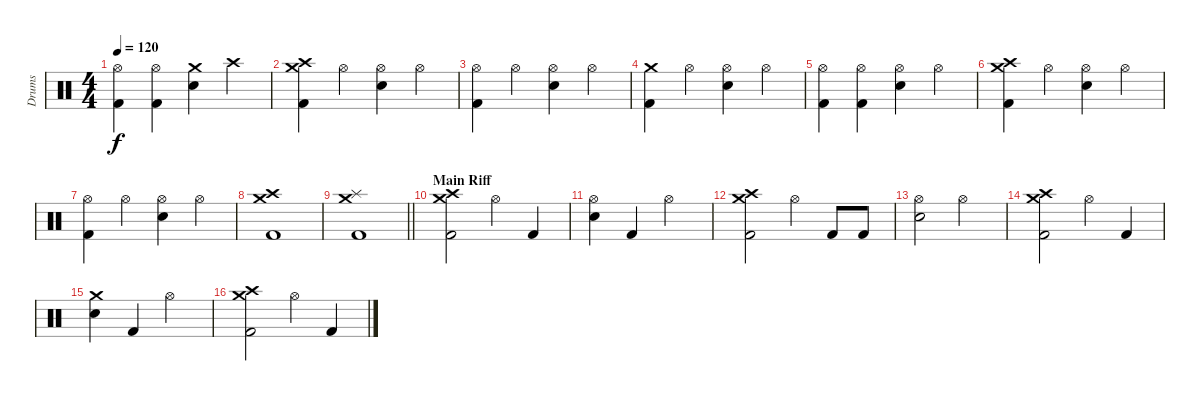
\track ("Drums" "Drums") {instrument percussion}
\staff {score}
\articulation defaults
\ts (4 4)
\tempo 120
\clef neutral
\ks c
("Hi-Hat (open)" "Kick (hit) 2").4{dy f} ("Hi-Hat (open)" "Kick (hit) 2").4 ("Crash medium (hit)" "Snare (hit) 2").4 "Crash high (hit)".4 |
("Crash high (hit)" "Crash medium (hit)" "Kick (hit) 2").4 "Hi-Hat (open)".4 ("Hi-Hat (open)" "Snare (hit) 2").4 "Hi-Hat (open)".4 |
("Hi-Hat (open)" "Kick (hit) 2").4 "Hi-Hat (open)".4 ("Hi-Hat (open)" "Snare (hit) 2").4 "Hi-Hat (open)".4 |
("Crash medium (hit)" "Kick (hit) 2").4 "Hi-Hat (open)".4 ("Hi-Hat (open)" "Snare (hit) 2").4 "Hi-Hat (open)".4 |
("Hi-Hat (open)" "Kick (hit) 2").4 ("Hi-Hat (open)" "Kick (hit) 2").4 ("Hi-Hat (open)" "Snare (hit) 2").4 "Hi-Hat (open)".4 |
("Crash high (hit)" "Crash medium (hit)" "Kick (hit) 2").4 "Hi-Hat (open)".4 ("Hi-Hat (open)" "Snare (hit) 2").4 "Hi-Hat (open)".4 |
("Hi-Hat (open)" "Kick (hit) 2").4 "Hi-Hat (open)".4 ("Hi-Hat (open)" "Snare (hit) 2").4 "Hi-Hat (open)".4 |
("Crash high (hit)" "Crash medium (hit)" "Kick (hit) 2").1 |
\barLineRight lightlight
("Crash medium (hit)" "Splash (hit)" "Kick (hit) 2").1 |
\section ("" "Main Riff")
("Crash high (hit)" "Crash medium (hit)" "Kick (hit) 2").2 "Hi-Hat (open)".4 "Kick (hit) 2".4 |
("Hi-Hat (open)" "Snare (hit) 2").4 "Kick (hit) 2".4 "Hi-Hat (open)".2 |
("Crash high (hit)" "Crash medium (hit)" "Kick (hit) 2").2 "Hi-Hat (open)".4 "Kick (hit) 2".8 "Kick (hit) 2".8 |
("Hi-Hat (open)" "Snare (hit) 2").2 "Hi-Hat (open)".2 |
("Crash high (hit)" "Crash medium (hit)" "Kick (hit) 2").2 "Hi-Hat (open)".4 "Kick (hit) 2".4 |
("Crash medium (hit)" "Snare (hit) 2").4 "Kick (hit) 2".4 "Hi-Hat (open)".2 |
("Crash high (hit)" "Crash medium (hit)" "Kick (hit) 2").2 "Hi-Hat (open)".4 "Kick (hit) 2".4
